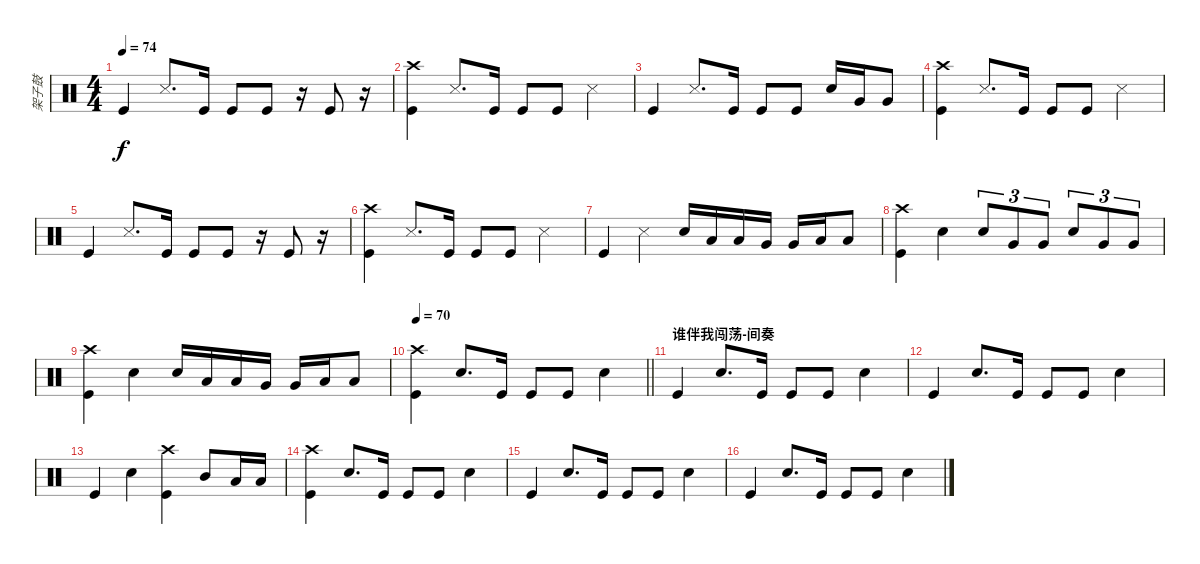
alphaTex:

\track ("架子鼓" "架子鼓") {instrument percussion}
\staff {score}
\articulation defaults
\ts (4 4)
\tempo 74
\clef neutral
\ks c "Kick (hit)".4{dy f} "Snare (side stick) 3".8{d} "Kick (hit)".16 "Kick (hit)".8 "Kick (hit)".8
r.16 "Kick (hit)".8 r.16 |
("Crash high (hit)" "Kick (hit)").4 "Snare (side stick) 3".8{d} "Kick (hit)".16 "Kick (hit)".8 "Kick (hit)".8 "Snare (side stick) 3".4 |
"Kick (hit)".4 "Snare (side stick) 3".8{d} "Kick (hit)".16 "Kick (hit)".8 "Kick (hit)".8 "Electric Snare (hit)".16 "Very Low Tom (hit)".16 "Very Low Tom (hit)".8 |
("Crash high (hit)" "Kick (hit)").4 "Snare (side stick) 3".8{d} "Kick (hit)".16 "Kick (hit)".8 "Kick (hit)".8 "Snare (side stick) 3".4 |
"Kick (hit)".4 "Snare (side stick) 3".8{d} "Kick (hit)".16 "Kick (hit)".8 "Kick (hit)".8 r.16 "Kick (hit)".8 r.16 |
("Crash high (hit)" "Kick (hit)").4 "Snare (side stick) 3".8{d} "Kick (hit)".16 "Kick (hit)".8 "Kick (hit)".8 "Snare (side stick) 3".4 |
"Kick (hit)".4 "Snare (side stick) 3".4 "Electric Snare (hit)".16 "Low Tom (hit)".16 "Low Tom (hit)".16 "Very Low Tom (hit)".16 "Very Low Tom (hit)".16 "Low Floor Tom (hit)".16 "Low Floor Tom (hit)".8 |
("Crash high (hit)" "Kick (hit)").4 "Electric Snare (hit)".4 "Electric Snare (hit)".8{tu (3 2)} "Very Low Tom (hit)".8{tu (3 2)} "Very Low Tom (hit)".8{tu (3 2)} "Electric Snare (hit)".8{tu (3 2)} "Very Low Tom (hit)".8{tu (3 2)} "Very Low Tom (hit)".8{tu (3 2)} |
("Crash high (hit)" "Kick (hit)").4 "Electric Snare (hit)".4 "Electric Snare (hit)".16 "Low Tom (hit)".16 "Low Tom (hit)".16 "Very Low Tom (hit)".16 "Very Low Tom (hit)".16 "Low Floor Tom (hit)".16 "Low Floor Tom (hit)".8 |
\tempo 70
\barLineRight lightlight
("Crash high (hit)" "Kick (hit)").4 "Electric Snare (hit)".8{d} "Kick (hit)".16 "Kick (hit)".8 "Kick (hit)".8 "Electric Snare (hit)".4 |
\section ("" "谁伴我闯荡-间奏")
"Kick (hit)".4 "Electric Snare (hit)".8{d} "Kick (hit)".16 "Kick (hit)".8 "Kick (hit)".8 "Electric Snare (hit)".4 |
"Kick (hit)".4 "Electric Snare (hit)".8{d} "Kick (hit)".16 "Kick (hit)".8 "Kick (hit)".8 "Electric Snare (hit)".4 |
"Kick (hit)".4 "Electric Snare (hit)".4 ("Crash high (hit)" "Kick (hit)").4 "Mid Tom (hit)".8 "Low Tom (hit)".16 "Low Tom (hit)".16 |
("Crash high (hit)" "Kick (hit)").4 "Electric Snare (hit)".8{d} "Kick (hit)".16 "Kick (hit)".8 "Kick (hit)".8 "Electric Snare (hit)".4 |
"Kick (hit)".4 "Electric Snare (hit)".8{d} "Kick (hit)".16 "Kick (hit)".8 "Kick (hit)".8 "Electric Snare (hit)".4 |
"Kick (hit)".4 "Electric Snare (hit)".8{d} "Kick (hit)".16 "Kick (hit)".8 "Kick (hit)".8 "Electric Snare (hit)".4
